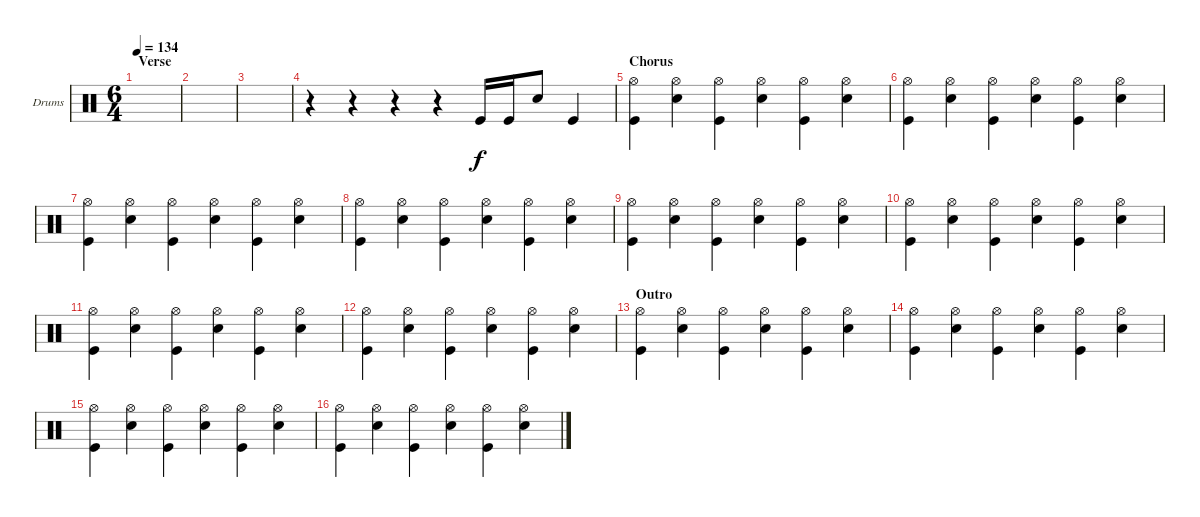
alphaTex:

\defaultSystemsLayout 4
\bracketExtendMode groupsimilarinstruments
\firstSystemTrackNameOrientation horizontal
\otherSystemsTrackNameOrientation horizontal
\track ("Drumkit" "Drums") {instrument percussion}
\staff {score}
\articulation defaults
\ts (6 4)
\section ("" "Verse")
\tempo 134
\clef neutral
\ks c
|
|
|
r.4 r.4 r.4 r.4 "Kick (hit)".16 "Kick (hit)".16 "Snare (hit) 2".8 "Kick (hit)".4 |
\section ("" "Chorus")
("Kick (hit)" "Hi-Hat (open)").4 ("Snare (hit) 2" "Hi-Hat (open)").4 ("Kick (hit)" "Hi-Hat (open)").4 ("Snare (hit) 2" "Hi-Hat (open)").4 ("Kick (hit)" "Hi-Hat (open)").4 ("Snare (hit) 2" "Hi-Hat (open)").4 |
("Kick (hit)" "Hi-Hat (open)").4 ("Snare (hit) 2" "Hi-Hat (open)").4 ("Kick (hit)" "Hi-Hat (open)").4 ("Snare (hit) 2" "Hi-Hat (open)").4 ("Kick (hit)" "Hi-Hat (open)").4 ("Snare (hit) 2" "Hi-Hat (open)").4 |
("Kick (hit)" "Hi-Hat (open)").4 ("Snare (hit) 2" "Hi-Hat (open)").4 ("Kick (hit)" "Hi-Hat (open)").4 ("Snare (hit) 2" "Hi-Hat (open)").4 ("Kick (hit)" "Hi-Hat (open)").4 ("Snare (hit) 2" "Hi-Hat (open)").4 |
("Kick (hit)" "Hi-Hat (open)").4 ("Snare (hit) 2" "Hi-Hat (open)").4 ("Kick (hit)" "Hi-Hat (open)").4 ("Snare (hit) 2" "Hi-Hat (open)").4 ("Kick (hit)" "Hi-Hat (open)").4 ("Snare (hit) 2" "Hi-Hat (open)").4 |
("Kick (hit)" "Hi-Hat (open)").4 ("Snare (hit) 2" "Hi-Hat (open)").4 ("Kick (hit)" "Hi-Hat (open)").4 ("Snare (hit) 2" "Hi-Hat (open)").4 ("Kick (hit)" "Hi-Hat (open)").4 ("Snare (hit) 2" "Hi-Hat (open)").4 |
("Kick (hit)" "Hi-Hat (open)").4 ("Snare (hit) 2" "Hi-Hat (open)").4 ("Kick (hit)" "Hi-Hat (open)").4 ("Snare (hit) 2" "Hi-Hat (open)").4 ("Kick (hit)" "Hi-Hat (open)").4 ("Snare (hit) 2" "Hi-Hat (open)").4 |
("Kick (hit)" "Hi-Hat (open)").4 ("Snare (hit) 2" "Hi-Hat (open)").4 ("Kick (hit)" "Hi-Hat (open)").4 ("Snare (hit) 2" "Hi-Hat (open)").4 ("Kick (hit)" "Hi-Hat (open)").4 ("Snare (hit) 2" "Hi-Hat (open)").4 |
("Kick (hit)" "Hi-Hat (open)").4 ("Snare (hit) 2" "Hi-Hat (open)").4 ("Kick (hit)" "Hi-Hat (open)").4 ("Snare (hit) 2" "Hi-Hat (open)").4 ("Kick (hit)" "Hi-Hat (open)").4 ("Snare (hit) 2" "Hi-Hat (open)").4 |
\section ("" "Outro")
("Kick (hit)" "Hi-Hat (open)").4 ("Snare (hit) 2" "Hi-Hat (open)").4 ("Kick (hit)" "Hi-Hat (open)").4 ("Snare (hit) 2" "Hi-Hat (open)").4 ("Kick (hit)" "Hi-Hat (open)").4 ("Snare (hit) 2" "Hi-Hat (open)").4 |
("Kick (hit)" "Hi-Hat (open)").4 ("Snare (hit) 2" "Hi-Hat (open)").4 ("Kick (hit)" "Hi-Hat (open)").4 ("Snare (hit) 2" "Hi-Hat (open)").4 ("Kick (hit)" "Hi-Hat (open)").4 ("Snare (hit) 2" "Hi-Hat (open)").4 |
("Kick (hit)" "Hi-Hat (open)").4 ("Snare (hit) 2" "Hi-Hat (open)").4 ("Kick (hit)" "Hi-Hat (open)").4 ("Snare (hit) 2" "Hi-Hat (open)").4 ("Kick (hit)" "Hi-Hat (open)").4 ("Snare (hit) 2" "Hi-Hat (open)").4 |
("Kick (hit)" "Hi-Hat (open)").4 ("Snare (hit) 2" "Hi-Hat (open)").4 ("Kick (hit)" "Hi-Hat (open)").4 ("Snare (hit) 2" "Hi-Hat (open)").4 ("Kick (hit)" "Hi-Hat (open)").4 ("Snare (hit) 2" "Hi-Hat (open)").4
